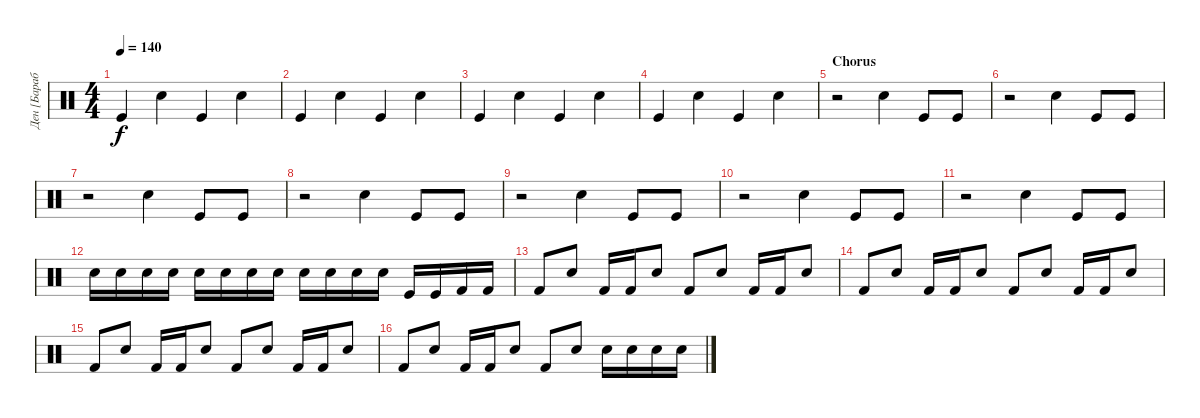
\track ("Ден [Барабаны]" "Ден [Бараб") {instrument percussion}
\staff {score}
\articulation defaults
\ts (4 4)
\tempo 140
\clef neutral
\ks c "Kick (hit)".4{dy f} "Electric Snare (hit)".4 "Kick (hit)".4 "Electric Snare (hit)".4
|
"Kick (hit)".4 "Electric Snare (hit)".4 "Kick (hit)".4 "Electric Snare (hit)".4 |
"Kick (hit)".4 "Electric Snare (hit)".4 "Kick (hit)".4 "Electric Snare (hit)".4 |
"Kick (hit)".4 "Electric Snare (hit)".4 "Kick (hit)".4 "Electric Snare (hit)".4 |
\section ("" "Chorus")
r.2 "Electric Snare (hit)".4 "Kick (hit)".8 "Kick (hit)".8 |
r.2 "Electric Snare (hit)".4 "Kick (hit)".8 "Kick (hit)".8 |
r.2 "Electric Snare (hit)".4 "Kick (hit)".8 "Kick (hit)".8 |
r.2 "Electric Snare (hit)".4 "Kick (hit)".8 "Kick (hit)".8 |
r.2 "Electric Snare (hit)".4 "Kick (hit)".8 "Kick (hit)".8 |
r.2 "Electric Snare (hit)".4 "Kick (hit)".8 "Kick (hit)".8 |
r.2 "Electric Snare (hit)".4 "Kick (hit)".8 "Kick (hit)".8 |
"Electric Snare (hit)".16 "Electric Snare (hit)".16 "Electric Snare (hit)".16 "Electric Snare (hit)".16 "Electric Snare (hit)".16 "Electric Snare (hit)".16 "Electric Snare (hit)".16 "Electric Snare (hit)".16 "Electric Snare (hit)".16 "Electric Snare (hit)".16 "Electric Snare (hit)".16 "Electric Snare (hit)".16 "Kick (hit)".16 "Kick (hit)".16 "Kick (hit) 2".16 "Kick (hit) 2".16 |
"Kick (hit) 2".8 "Electric Snare (hit)".8 "Kick (hit) 2".16 "Kick (hit) 2".16 "Electric Snare (hit)".8 "Kick (hit) 2".8 "Electric Snare (hit)".8 "Kick (hit) 2".16 "Kick (hit) 2".16 "Electric Snare (hit)".8 |
"Kick (hit) 2".8 "Electric Snare (hit)".8 "Kick (hit) 2".16 "Kick (hit) 2".16 "Electric Snare (hit)".8 "Kick (hit) 2".8 "Electric Snare (hit)".8 "Kick (hit) 2".16 "Kick (hit) 2".16 "Electric Snare (hit)".8 |
"Kick (hit) 2".8 "Electric Snare (hit)".8 "Kick (hit) 2".16 "Kick (hit) 2".16 "Electric Snare (hit)".8 "Kick (hit) 2".8 "Electric Snare (hit)".8 "Kick (hit) 2".16 "Kick (hit) 2".16 "Electric Snare (hit)".8 |
"Kick (hit) 2".8 "Electric Snare (hit)".8 "Kick (hit) 2".16 "Kick (hit) 2".16 "Electric Snare (hit)".8 "Kick (hit) 2".8 "Electric Snare (hit)".8 "Electric Snare (hit)".16 "Electric Snare (hit)".16 "Electric Snare (hit)".16 "Electric Snare (hit)".16
